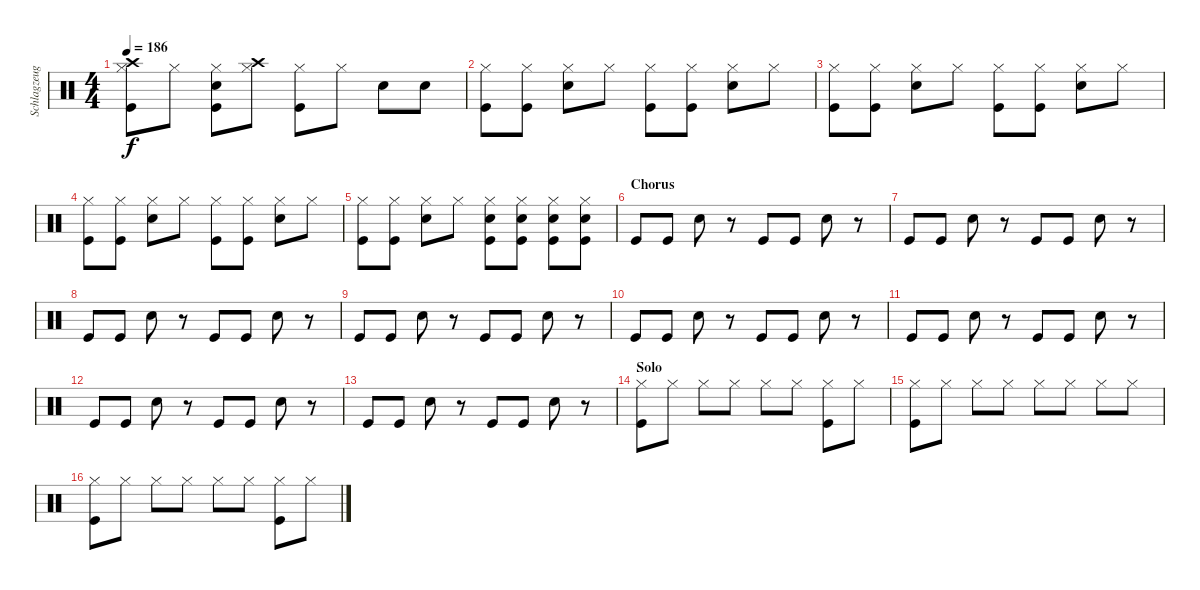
\track ("Schlagzeug - Bela B." "Schlagzeug") {instrument percussion}
\staff {score}
\articulation defaults
\ts (4 4)
\tempo 186
\clef neutral
\ks c
("Hi-Hat (closed)" "Crash high (hit)" "Kick (hit)").8{dy f} "Hi-Hat (closed)".8 ("Hi-Hat (closed)" "Kick (hit)" "Electric Snare (hit)").8 ("Crash high (hit)" "Hi-Hat (closed)").8 ("Kick (hit)" "Hi-Hat (closed)").8 "Hi-Hat (closed)".8 "Electric Snare (hit)".8 "Electric Snare (hit)".8 |
("Kick (hit)" "Hi-Hat (closed)").8 ("Hi-Hat (closed)" "Kick (hit)").8 ("Electric Snare (hit)" "Hi-Hat (closed)").8 "Hi-Hat (closed)".8 ("Hi-Hat (closed)" "Kick (hit)").8 ("Kick (hit)" "Hi-Hat (closed)").8 ("Electric Snare (hit)" "Hi-Hat (closed)").8 "Hi-Hat (closed)".8 |
("Hi-Hat (closed)" "Kick (hit)").8 ("Hi-Hat (closed)" "Kick (hit)").8 ("Hi-Hat (closed)" "Electric Snare (hit)").8 "Hi-Hat (closed)".8 ("Hi-Hat (closed)" "Kick (hit)").8 ("Kick (hit)" "Hi-Hat (closed)").8 ("Hi-Hat (closed)" "Electric Snare (hit)").8 "Hi-Hat (closed)".8 |
("Hi-Hat (closed)" "Kick (hit)").8 ("Kick (hit)" "Hi-Hat (closed)").8 ("Electric Snare (hit)" "Hi-Hat (closed)").8 "Hi-Hat (closed)".8 ("Kick (hit)" "Hi-Hat (closed)").8 ("Kick (hit)" "Hi-Hat (closed)").8 ("Electric Snare (hit)" "Hi-Hat (closed)").8 "Hi-Hat (closed)".8 |
("Hi-Hat (closed)" "Kick (hit)").8 ("Hi-Hat (closed)" "Kick (hit)").8 ("Hi-Hat (closed)" "Electric Snare (hit)").8 "Hi-Hat (closed)".8 ("Kick (hit)" "Electric Snare (hit)" "Hi-Hat (closed)").8 ("Electric Snare (hit)" "Kick (hit)" "Hi-Hat (closed)").8 ("Electric Snare (hit)" "Kick (hit)" "Hi-Hat (closed)").8 ("Electric Snare (hit)" "Kick (hit)" "Hi-Hat (closed)").8 |
\section ("" "Chorus")
"Kick (hit)".8 "Kick (hit)".8 "Snare (hit) 2".8 r.8 "Kick (hit)".8 "Kick (hit)".8 "Snare (hit) 2".8 r.8 |
"Kick (hit)".8 "Kick (hit)".8 "Snare (hit) 2".8 r.8 "Kick (hit)".8 "Kick (hit)".8 "Snare (hit) 2".8 r.8 |
"Kick (hit)".8 "Kick (hit)".8 "Snare (hit) 2".8 r.8 "Kick (hit)".8 "Kick (hit)".8 "Snare (hit) 2".8 r.8 |
"Kick (hit)".8 "Kick (hit)".8 "Snare (hit) 2".8 r.8 "Kick (hit)".8 "Kick (hit)".8 "Snare (hit) 2".8 r.8 |
"Kick (hit)".8 "Kick (hit)".8 "Snare (hit) 2".8 r.8 "Kick (hit)".8 "Kick (hit)".8 "Snare (hit) 2".8 r.8 |
"Kick (hit)".8 "Kick (hit)".8 "Snare (hit) 2".8 r.8 "Kick (hit)".8 "Kick (hit)".8 "Snare (hit) 2".8 r.8 |
"Kick (hit)".8 "Kick (hit)".8 "Snare (hit) 2".8 r.8 "Kick (hit)".8 "Kick (hit)".8 "Snare (hit) 2".8 r.8 |
"Kick (hit)".8 "Kick (hit)".8 "Snare (hit) 2".8 r.8 "Kick (hit)".8 "Kick (hit)".8 "Snare (hit) 2".8 r.8 |
\section ("" "Solo")
("Kick (hit)" "Hi-Hat (closed)").8 "Hi-Hat (closed)".8 "Hi-Hat (closed)".8 "Hi-Hat (closed)".8 "Hi-Hat (closed)".8 "Hi-Hat (closed)".8 ("Hi-Hat (closed)" "Kick (hit)").8 "Hi-Hat (closed)".8 |
("Kick (hit)" "Hi-Hat (closed)").8 "Hi-Hat (closed)".8 "Hi-Hat (closed)".8 "Hi-Hat (closed)".8 "Hi-Hat (closed)".8 "Hi-Hat (closed)".8 "Hi-Hat (closed)".8 "Hi-Hat (closed)".8 |
("Kick (hit)" "Hi-Hat (closed)").8 "Hi-Hat (closed)".8 "Hi-Hat (closed)".8 "Hi-Hat (closed)".8 "Hi-Hat (closed)".8 "Hi-Hat (closed)".8 ("Kick (hit)" "Hi-Hat (closed)").8 "Hi-Hat (closed)".8
